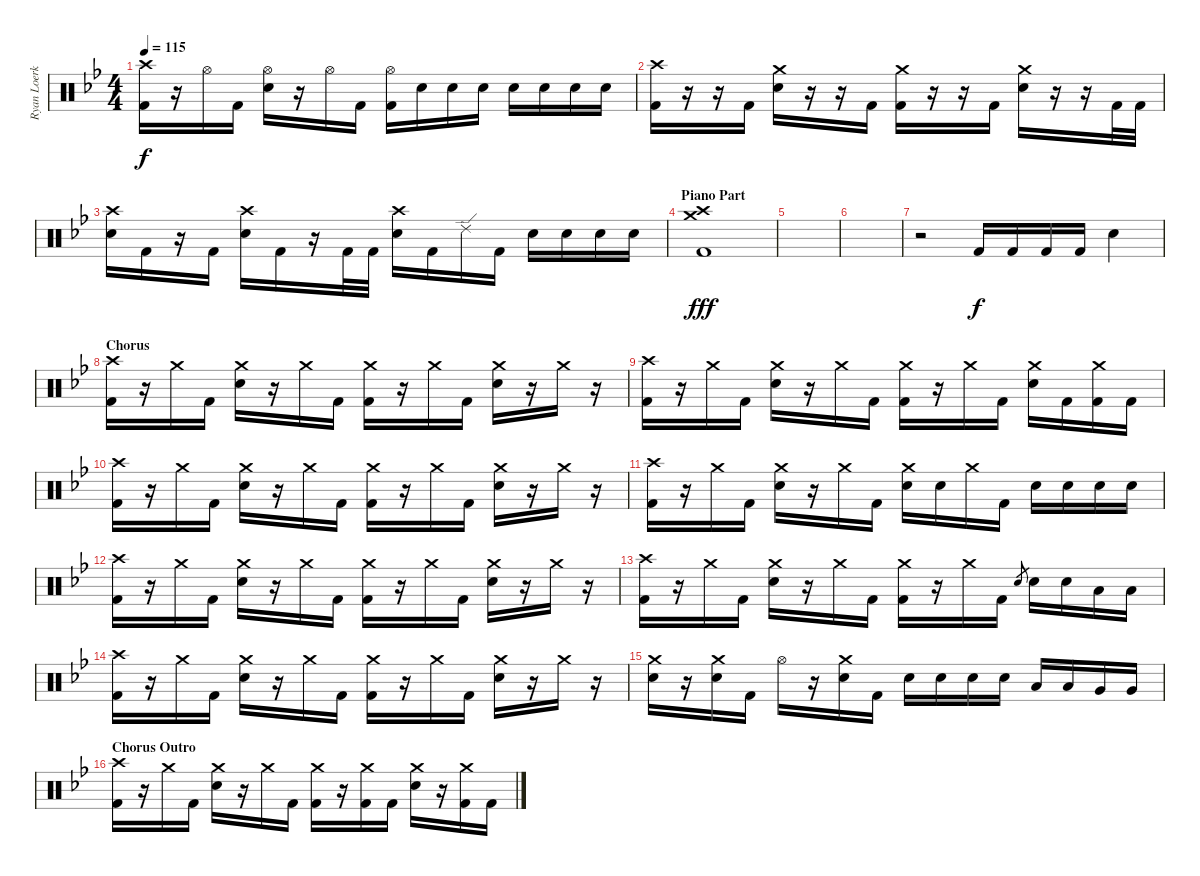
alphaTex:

\track ("Ryan Loerke" "Ryan Loerk") {instrument percussion}
\staff {score}
\articulation defaults
\ts (4 4)
\tempo 115
\clef neutral
\ks gminor
("Crash high (hit)" "Kick (hit) 2").16{dy f} r.16 "Hi-Hat (open)".16 "Kick (hit) 2".16 ("Hi-Hat (open)" "Snare (hit) 2").16 r.16 "Hi-Hat (open)".16 "Kick (hit) 2".16 ("Hi-Hat (open)" "Kick (hit) 2").16 "Snare (hit) 2".16 "Snare (hit) 2".16 "Snare (hit) 2".16 "Snare (hit) 2".16 "Snare (hit) 2".16 "Snare (hit) 2".16 "Snare (hit) 2".16 |
("Crash high (hit)" "Kick (hit) 2").16 r.16 r.16 "Kick (hit) 2".16 ("Crash medium (hit)" "Snare (hit) 2").16 r.16 r.16 "Kick (hit) 2".16 ("Crash medium (hit)" "Kick (hit) 2").16 r.16 r.16 "Kick (hit) 2".16 ("Crash medium (hit)" "Snare (hit) 2").16 r.16 r.16 "Kick (hit) 2".32 "Kick (hit) 2".32 |
("Crash high (hit)" "Snare (hit) 2").16 "Kick (hit) 2".16 r.16 "Kick (hit) 2".16 ("Crash high (hit)" "Snare (hit) 2").16 "Kick (hit) 2".16 r.16 "Kick (hit) 2".32 "Kick (hit) 2".32 ("Crash high (hit)" "Snare (hit) 2").16 "Kick (hit) 2".16 "Ride (edge) 2".16 "Kick (hit) 2".16 "Snare (hit) 2".16 "Snare (hit) 2".16 "Snare (hit) 2".16 "Snare (hit) 2".16 |
\section ("" "Piano Part")
("Crash medium (hit)" "Crash high (hit)" "Kick (hit) 2").1{dy fff} |
|
|
r.2 "Kick (hit) 2".16{dy f} "Kick (hit) 2".16 "Kick (hit) 2".16 "Kick (hit) 2".16 "Snare (hit) 2".4 |
\section ("" "Chorus")
("Crash high (hit)" "Kick (hit) 2").16 r.16 "Crash medium (hit)".16 "Kick (hit) 2".16 ("Crash medium (hit)" "Snare (hit) 2").16 r.16 "Crash medium (hit)".16 "Kick (hit) 2".16 ("Crash medium (hit)" "Kick (hit) 2").16 r.16 "Crash medium (hit)".16 "Kick (hit) 2".16 ("Crash medium (hit)" "Snare (hit) 2").16 r.16 "Crash medium (hit)".16 r.16 |
("Crash high (hit)" "Kick (hit) 2").16 r.16 "Crash medium (hit)".16 "Kick (hit) 2".16 ("Crash medium (hit)" "Snare (hit) 2").16 r.16 "Crash medium (hit)".16 "Kick (hit) 2".16 ("Crash medium (hit)" "Kick (hit) 2").16 r.16 "Crash medium (hit)".16 "Kick (hit) 2".16 ("Crash medium (hit)" "Snare (hit) 2").16 "Kick (hit) 2".16 ("Crash medium (hit)" "Kick (hit) 2").16 "Kick (hit) 2".16 |
("Crash high (hit)" "Kick (hit) 2").16 r.16 "Crash medium (hit)".16 "Kick (hit) 2".16 ("Crash medium (hit)" "Snare (hit) 2").16 r.16 "Crash medium (hit)".16 "Kick (hit) 2".16 ("Crash medium (hit)" "Kick (hit) 2").16 r.16 "Crash medium (hit)".16 "Kick (hit) 2".16 ("Crash medium (hit)" "Snare (hit) 2").16 r.16 "Crash medium (hit)".16 r.16 |
("Crash high (hit)" "Kick (hit) 2").16 r.16 "Crash medium (hit)".16 "Kick (hit) 2".16 ("Crash medium (hit)" "Snare (hit) 2").16 r.16 "Crash medium (hit)".16 "Kick (hit) 2".16 ("Crash medium (hit)" "Snare (hit) 2").16 "Snare (hit) 2".16 "Crash medium (hit)".16 "Kick (hit) 2".16 "Snare (hit) 2".16 "Snare (hit) 2".16 "Snare (hit) 2".16 "Snare (hit) 2".16 |
("Crash high (hit)" "Kick (hit) 2").16 r.16 "Crash medium (hit)".16 "Kick (hit) 2".16 ("Crash medium (hit)" "Snare (hit) 2").16 r.16 "Crash medium (hit)".16 "Kick (hit) 2".16 ("Crash medium (hit)" "Kick (hit) 2").16 r.16 "Crash medium (hit)".16 "Kick (hit) 2".16 ("Crash medium (hit)" "Snare (hit) 2").16 r.16 "Crash medium (hit)".16 r.16 |
("Crash high (hit)" "Kick (hit) 2").16 r.16 "Crash medium (hit)".16 "Kick (hit) 2".16 ("Crash medium (hit)" "Snare (hit) 2").16 r.16 "Crash medium (hit)".16 "Kick (hit) 2".16 ("Crash medium (hit)" "Kick (hit) 2").16 r.16 "Crash medium (hit)".16 "Kick (hit) 2".16 "Snare (hit) 2".8{gr} "Snare (hit) 2".16 "Snare (hit) 2".16 "Low Tom (hit)".16 "Low Tom (hit)".16 |
("Crash high (hit)" "Kick (hit) 2").16 r.16 "Crash medium (hit)".16 "Kick (hit) 2".16 ("Crash medium (hit)" "Snare (hit) 2").16 r.16 "Crash medium (hit)".16 "Kick (hit) 2".16 ("Crash medium (hit)" "Kick (hit) 2").16 r.16 "Crash medium (hit)".16 "Kick (hit) 2".16 ("Crash medium (hit)" "Snare (hit) 2").16 r.16 "Crash medium (hit)".16 r.16 |
("Crash medium (hit)" "Snare (hit) 2").16 r.16 ("Crash medium (hit)" "Snare (hit) 2").16 "Kick (hit) 2".16 "Hi-Hat (open)".16 r.16 ("Crash medium (hit)" "Snare (hit) 2").16 "Kick (hit) 2".16 "Snare (hit) 2".16 "Snare (hit) 2".16 "Snare (hit) 2".16 "Snare (hit) 2".16 "Low Tom (hit)".16 "Low Tom (hit)".16 "Very Low Tom (hit)".16 "Very Low Tom (hit)".16 |
\section ("" "Chorus Outro")
("Crash high (hit)" "Kick (hit) 2").16 r.16 "Crash medium (hit)".16 "Kick (hit) 2".16 ("Crash medium (hit)" "Snare (hit) 2").16 r.16 "Crash medium (hit)".16 "Kick (hit) 2".16 ("Crash medium (hit)" "Kick (hit) 2").16 r.16 ("Crash medium (hit)" "Kick (hit) 2").16 "Kick (hit) 2".16 ("Crash medium (hit)" "Snare (hit) 2").16 r.16 ("Crash medium (hit)" "Kick (hit) 2").16 "Kick (hit) 2".16
